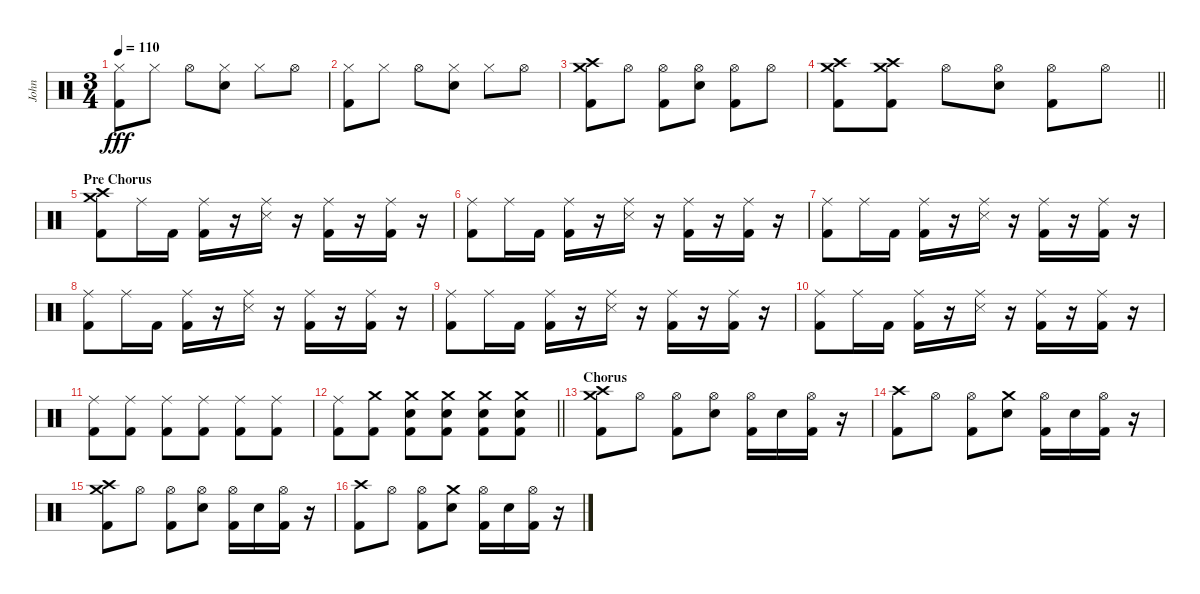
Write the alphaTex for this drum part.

\track ("John" "John") {instrument percussion}
\staff {score}
\articulation defaults
\ts (3 4)
\tempo 110
\clef neutral
\ks c
("Hi-Hat (closed)" "Kick (hit) 2").8{dy fff} "Hi-Hat (closed)".8 "Hi-Hat (open)".8 ("Hi-Hat (closed)" "Electric Snare (hit)").8 "Hi-Hat (closed)".8 "Hi-Hat (open)".8 |
("Hi-Hat (closed)" "Kick (hit) 2").8 "Hi-Hat (closed)".8 "Hi-Hat (open)".8 ("Hi-Hat (closed)" "Electric Snare (hit)").8 "Hi-Hat (closed)".8 "Hi-Hat (open)".8 |
("Crash medium (hit)" "Crash high (hit)" "Kick (hit) 2").8 "Hi-Hat (open)".8 ("Hi-Hat (open)" "Kick (hit) 2").8 ("Hi-Hat (open)" "Electric Snare (hit)").8 ("Hi-Hat (open)" "Kick (hit) 2").8 "Hi-Hat (open)".8 |
\barLineRight lightlight
("Crash medium (hit)" "Crash high (hit)" "Kick (hit) 2").8 ("Crash medium (hit)" "Crash high (hit)" "Kick (hit) 2").8 "Hi-Hat (open)".8 ("Hi-Hat (open)" "Electric Snare (hit)").8 ("Hi-Hat (open)" "Kick (hit) 2").8 "Hi-Hat (open)".8 |
\section ("" "Pre Chorus")
("Crash medium (hit)" "Crash high (hit)" "Kick (hit) 2").8 "Ride (middle)".16 "Kick (hit) 2".16 ("Ride (middle)" "Kick (hit) 2").16 r.16 ("Ride (middle)" "Snare (side stick) 3").16 r.16 ("Ride (middle)" "Kick (hit) 2").16 r.16 ("Ride (middle)" "Kick (hit) 2").16 r.16 |
("Ride (middle)" "Kick (hit) 2").8 "Ride (middle)".16 "Kick (hit) 2".16 ("Ride (middle)" "Kick (hit) 2").16 r.16 ("Ride (middle)" "Snare (side stick) 3").16 r.16 ("Ride (middle)" "Kick (hit) 2").16 r.16 ("Ride (middle)" "Kick (hit) 2").16 r.16 |
("Ride (middle)" "Kick (hit) 2").8 "Ride (middle)".16 "Kick (hit) 2".16 ("Ride (middle)" "Kick (hit) 2").16 r.16 ("Ride (middle)" "Snare (side stick) 3").16 r.16 ("Ride (middle)" "Kick (hit) 2").16 r.16 ("Ride (middle)" "Kick (hit) 2").16 r.16 |
("Ride (middle)" "Kick (hit) 2").8 "Ride (middle)".16 "Kick (hit) 2".16 ("Ride (middle)" "Kick (hit) 2").16 r.16 ("Ride (middle)" "Snare (side stick) 3").16 r.16 ("Ride (middle)" "Kick (hit) 2").16 r.16 ("Ride (middle)" "Kick (hit) 2").16 r.16 |
("Ride (middle)" "Kick (hit) 2").8 "Ride (middle)".16 "Kick (hit) 2".16 ("Ride (middle)" "Kick (hit) 2").16 r.16 ("Ride (middle)" "Snare (side stick) 3").16 r.16 ("Ride (middle)" "Kick (hit) 2").16 r.16 ("Ride (middle)" "Kick (hit) 2").16 r.16 |
("Ride (middle)" "Kick (hit) 2").8 "Ride (middle)".16 "Kick (hit) 2".16 ("Ride (middle)" "Kick (hit) 2").16 r.16 ("Ride (middle)" "Snare (side stick) 3").16 r.16 ("Ride (middle)" "Kick (hit) 2").16 r.16 ("Ride (middle)" "Kick (hit) 2").16 r.16 |
("Ride (middle)" "Kick (hit) 2").8 ("Ride (middle)" "Kick (hit) 2").8 ("Ride (middle)" "Kick (hit) 2").8 ("Ride (middle)" "Kick (hit) 2").8 ("Ride (middle)" "Kick (hit) 2").8 ("Ride (middle)" "Kick (hit) 2").8 |
\barLineRight lightlight
("Ride (middle)" "Kick (hit) 2").8 ("Crash medium (hit)" "Kick (hit) 2").8 ("Crash medium (hit)" "Electric Snare (hit)" "Kick (hit) 2").8 ("Crash medium (hit)" "Electric Snare (hit)" "Kick (hit) 2").8 ("Crash medium (hit)" "Electric Snare (hit)" "Kick (hit) 2").8 ("Crash medium (hit)" "Electric Snare (hit)" "Kick (hit) 2").8 |
\section ("" "Chorus")
("Crash medium (hit)" "Crash high (hit)" "Kick (hit) 2").8 "Hi-Hat (open)".8 ("Hi-Hat (open)" "Kick (hit) 2").8 ("Hi-Hat (open)" "Electric Snare (hit)").8 ("Hi-Hat (open)" "Kick (hit) 2").16 "Electric Snare (hit)".16 ("Hi-Hat (open)" "Kick (hit) 2").16 r.16 |
("Crash high (hit)" "Kick (hit) 2").8 "Hi-Hat (open)".8 ("Hi-Hat (open)" "Kick (hit) 2").8 ("Crash medium (hit)" "Electric Snare (hit)").8 ("Hi-Hat (open)" "Kick (hit) 2").16 "Electric Snare (hit)".16 ("Hi-Hat (open)" "Kick (hit) 2").16 r.16 |
("Crash medium (hit)" "Crash high (hit)" "Kick (hit) 2").8 "Hi-Hat (open)".8 ("Hi-Hat (open)" "Kick (hit) 2").8 ("Hi-Hat (open)" "Electric Snare (hit)").8 ("Hi-Hat (open)" "Kick (hit) 2").16 "Electric Snare (hit)".16 ("Hi-Hat (open)" "Kick (hit) 2").16 r.16 |
("Crash high (hit)" "Kick (hit) 2").8 "Hi-Hat (open)".8 ("Hi-Hat (open)" "Kick (hit) 2").8 ("Crash medium (hit)" "Electric Snare (hit)").8 ("Hi-Hat (open)" "Kick (hit) 2").16 "Electric Snare (hit)".16 ("Hi-Hat (open)" "Kick (hit) 2").16 r.16
